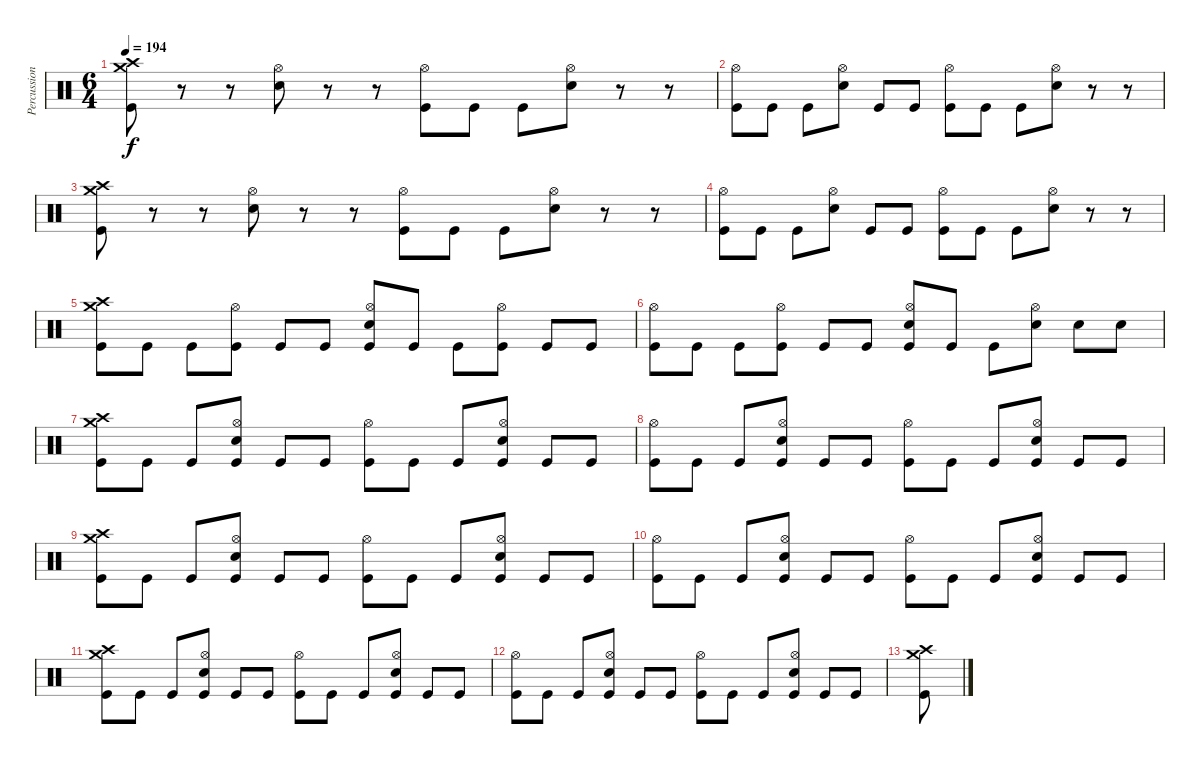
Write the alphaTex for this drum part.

\track ("Percussion" "Percussion") {instrument percussion}
\staff {score}
\articulation defaults
\ts (6 4)
\tempo 194
\clef neutral
\ks c
("Crash medium (hit)" "Crash high (hit)" "Kick (hit)").8{dy f} r.8 r.8 ("Hi-Hat (open)" "Electric Snare (hit)").8 r.8 r.8 ("Hi-Hat (open)" "Kick (hit)").8 "Kick (hit)".8 "Kick (hit)".8 ("Hi-Hat (open)" "Electric Snare (hit)").8 r.8 r.8 |
("Hi-Hat (open)" "Kick (hit)").8 "Kick (hit)".8 "Kick (hit)".8 ("Hi-Hat (open)" "Electric Snare (hit)").8 "Kick (hit)".8 "Kick (hit)".8 ("Hi-Hat (open)" "Kick (hit)").8 "Kick (hit)".8 "Kick (hit)".8 ("Hi-Hat (open)" "Electric Snare (hit)").8 r.8 r.8 |
("Crash medium (hit)" "Crash high (hit)" "Kick (hit)").8 r.8 r.8 ("Hi-Hat (open)" "Electric Snare (hit)").8 r.8 r.8 ("Hi-Hat (open)" "Kick (hit)").8 "Kick (hit)".8 "Kick (hit)".8 ("Hi-Hat (open)" "Electric Snare (hit)").8 r.8 r.8 |
("Hi-Hat (open)" "Kick (hit)").8 "Kick (hit)".8 "Kick (hit)".8 ("Hi-Hat (open)" "Electric Snare (hit)").8 "Kick (hit)".8 "Kick (hit)".8 ("Hi-Hat (open)" "Kick (hit)").8 "Kick (hit)".8 "Kick (hit)".8 ("Hi-Hat (open)" "Electric Snare (hit)").8 r.8 r.8 |
("Crash medium (hit)" "Crash high (hit)" "Kick (hit)").8 "Kick (hit)".8 "Kick (hit)".8 ("Hi-Hat (open)" "Kick (hit)").8 "Kick (hit)".8 "Kick (hit)".8 ("Hi-Hat (open)" "Electric Snare (hit)" "Kick (hit)").8 "Kick (hit)".8 "Kick (hit)".8 ("Hi-Hat (open)" "Kick (hit)").8 "Kick (hit)".8 "Kick (hit)".8 |
("Hi-Hat (open)" "Kick (hit)").8 "Kick (hit)".8 "Kick (hit)".8 ("Hi-Hat (open)" "Kick (hit)").8 "Kick (hit)".8 "Kick (hit)".8 ("Hi-Hat (open)" "Electric Snare (hit)" "Kick (hit)").8 "Kick (hit)".8 "Kick (hit)".8 ("Hi-Hat (open)" "Electric Snare (hit)").8 "Electric Snare (hit)".8 "Electric Snare (hit)".8 |
("Crash medium (hit)" "Crash high (hit)" "Kick (hit)").8 "Kick (hit)".8 "Kick (hit)".8 ("Hi-Hat (open)" "Electric Snare (hit)" "Kick (hit)").8 "Kick (hit)".8 "Kick (hit)".8 ("Hi-Hat (open)" "Kick (hit)").8 "Kick (hit)".8 "Kick (hit)".8 ("Hi-Hat (open)" "Electric Snare (hit)" "Kick (hit)").8 "Kick (hit)".8 "Kick (hit)".8 |
("Hi-Hat (open)" "Kick (hit)").8 "Kick (hit)".8 "Kick (hit)".8 ("Hi-Hat (open)" "Electric Snare (hit)" "Kick (hit)").8 "Kick (hit)".8 "Kick (hit)".8 ("Hi-Hat (open)" "Kick (hit)").8 "Kick (hit)".8 "Kick (hit)".8 ("Hi-Hat (open)" "Electric Snare (hit)" "Kick (hit)").8 "Kick (hit)".8 "Kick (hit)".8 |
("Crash medium (hit)" "Crash high (hit)" "Kick (hit)").8 "Kick (hit)".8 "Kick (hit)".8 ("Hi-Hat (open)" "Electric Snare (hit)" "Kick (hit)").8 "Kick (hit)".8 "Kick (hit)".8 ("Hi-Hat (open)" "Kick (hit)").8 "Kick (hit)".8 "Kick (hit)".8 ("Hi-Hat (open)" "Electric Snare (hit)" "Kick (hit)").8 "Kick (hit)".8 "Kick (hit)".8 |
("Hi-Hat (open)" "Kick (hit)").8 "Kick (hit)".8 "Kick (hit)".8 ("Hi-Hat (open)" "Electric Snare (hit)" "Kick (hit)").8 "Kick (hit)".8 "Kick (hit)".8 ("Hi-Hat (open)" "Kick (hit)").8 "Kick (hit)".8 "Kick (hit)".8 ("Hi-Hat (open)" "Electric Snare (hit)" "Kick (hit)").8 "Kick (hit)".8 "Kick (hit)".8 |
("Crash medium (hit)" "Crash high (hit)" "Kick (hit)").8 "Kick (hit)".8 "Kick (hit)".8 ("Hi-Hat (open)" "Electric Snare (hit)" "Kick (hit)").8 "Kick (hit)".8 "Kick (hit)".8 ("Hi-Hat (open)" "Kick (hit)").8 "Kick (hit)".8 "Kick (hit)".8 ("Hi-Hat (open)" "Electric Snare (hit)" "Kick (hit)").8 "Kick (hit)".8 "Kick (hit)".8 |
("Hi-Hat (open)" "Kick (hit)").8 "Kick (hit)".8 "Kick (hit)".8 ("Hi-Hat (open)" "Electric Snare (hit)" "Kick (hit)").8 "Kick (hit)".8 "Kick (hit)".8 ("Hi-Hat (open)" "Kick (hit)").8 "Kick (hit)".8 "Kick (hit)".8 ("Hi-Hat (open)" "Electric Snare (hit)" "Kick (hit)").8 "Kick (hit)".8 "Kick (hit)".8 |
("Crash medium (hit)" "Crash high (hit)" "Kick (hit)").8
